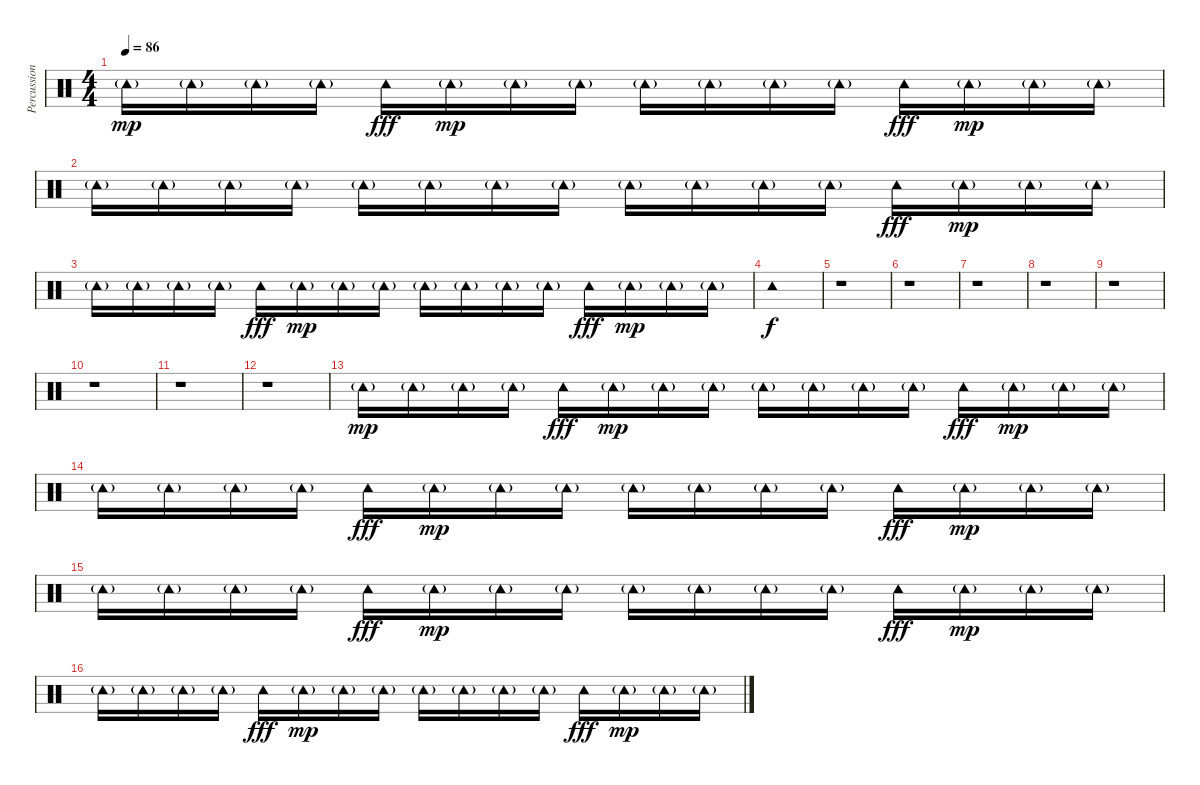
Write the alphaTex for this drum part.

\track ("Percussion" "Percussion") {instrument percussion}
\staff {score}
\articulation defaults
\ts (4 4)
\tempo 86
\clef neutral
\ks c "Tambourine (hit)"{g}.16{dy mp} "Tambourine (hit)"{g}.16 "Tambourine (hit)"{g}.16 "Tambourine (hit)"{g}.16 "Tambourine (hit)".16{dy fff} "Tambourine (hit)"{g}.16{dy mp} "Tambourine (hit)"{g}.16 "Tambourine (hit)"{g}.16 "Tambourine (hit)"{g}.16 "Tambourine (hit)"{g}.16 "Tambourine (hit)"{g}.16 "Tambourine (hit)"{g}.16 "Tambourine (hit)".16{dy fff} "Tambourine (hit)"{g}.16{dy mp} "Tambourine (hit)"{g}.16 "Tambourine (hit)"{g}.16
|
"Tambourine (hit)"{g}.16 "Tambourine (hit)"{g}.16 "Tambourine (hit)"{g}.16 "Tambourine (hit)"{g}.16 "Tambourine (hit)"{g}.16 "Tambourine (hit)"{g}.16 "Tambourine (hit)"{g}.16 "Tambourine (hit)"{g}.16 "Tambourine (hit)"{g}.16 "Tambourine (hit)"{g}.16 "Tambourine (hit)"{g}.16 "Tambourine (hit)"{g}.16 "Tambourine (hit)".16{dy fff} "Tambourine (hit)"{g}.16{dy mp} "Tambourine (hit)"{g}.16 "Tambourine (hit)"{g}.16 |
"Tambourine (hit)"{g}.16 "Tambourine (hit)"{g}.16 "Tambourine (hit)"{g}.16 "Tambourine (hit)"{g}.16 "Tambourine (hit)".16{dy fff} "Tambourine (hit)"{g}.16{dy mp} "Tambourine (hit)"{g}.16 "Tambourine (hit)"{g}.16 "Tambourine (hit)"{g}.16 "Tambourine (hit)"{g}.16 "Tambourine (hit)"{g}.16 "Tambourine (hit)"{g}.16 "Tambourine (hit)".16{dy fff} "Tambourine (hit)"{g}.16{dy mp} "Tambourine (hit)"{g}.16 "Tambourine (hit)"{g}.16 |
"Tambourine (hit)".1{dy f} |
r.1 |
r.1 |
r.1 |
r.1 |
r.1 |
r.1 |
r.1 |
r.1 |
"Tambourine (hit)"{g}.16{dy mp} "Tambourine (hit)"{g}.16 "Tambourine (hit)"{g}.16 "Tambourine (hit)"{g}.16 "Tambourine (hit)".16{dy fff} "Tambourine (hit)"{g}.16{dy mp} "Tambourine (hit)"{g}.16 "Tambourine (hit)"{g}.16 "Tambourine (hit)"{g}.16 "Tambourine (hit)"{g}.16 "Tambourine (hit)"{g}.16 "Tambourine (hit)"{g}.16 "Tambourine (hit)".16{dy fff} "Tambourine (hit)"{g}.16{dy mp} "Tambourine (hit)"{g}.16 "Tambourine (hit)"{g}.16 |
"Tambourine (hit)"{g}.16 "Tambourine (hit)"{g}.16 "Tambourine (hit)"{g}.16 "Tambourine (hit)"{g}.16 "Tambourine (hit)".16{dy fff} "Tambourine (hit)"{g}.16{dy mp} "Tambourine (hit)"{g}.16 "Tambourine (hit)"{g}.16 "Tambourine (hit)"{g}.16 "Tambourine (hit)"{g}.16 "Tambourine (hit)"{g}.16 "Tambourine (hit)"{g}.16 "Tambourine (hit)".16{dy fff} "Tambourine (hit)"{g}.16{dy mp} "Tambourine (hit)"{g}.16 "Tambourine (hit)"{g}.16 |
"Tambourine (hit)"{g}.16 "Tambourine (hit)"{g}.16 "Tambourine (hit)"{g}.16 "Tambourine (hit)"{g}.16 "Tambourine (hit)".16{dy fff} "Tambourine (hit)"{g}.16{dy mp} "Tambourine (hit)"{g}.16 "Tambourine (hit)"{g}.16 "Tambourine (hit)"{g}.16 "Tambourine (hit)"{g}.16 "Tambourine (hit)"{g}.16 "Tambourine (hit)"{g}.16 "Tambourine (hit)".16{dy fff} "Tambourine (hit)"{g}.16{dy mp} "Tambourine (hit)"{g}.16 "Tambourine (hit)"{g}.16 |
"Tambourine (hit)"{g}.16 "Tambourine (hit)"{g}.16 "Tambourine (hit)"{g}.16 "Tambourine (hit)"{g}.16 "Tambourine (hit)".16{dy fff} "Tambourine (hit)"{g}.16{dy mp} "Tambourine (hit)"{g}.16 "Tambourine (hit)"{g}.16 "Tambourine (hit)"{g}.16 "Tambourine (hit)"{g}.16 "Tambourine (hit)"{g}.16 "Tambourine (hit)"{g}.16 "Tambourine (hit)".16{dy fff} "Tambourine (hit)"{g}.16{dy mp} "Tambourine (hit)"{g}.16 "Tambourine (hit)"{g}.16
